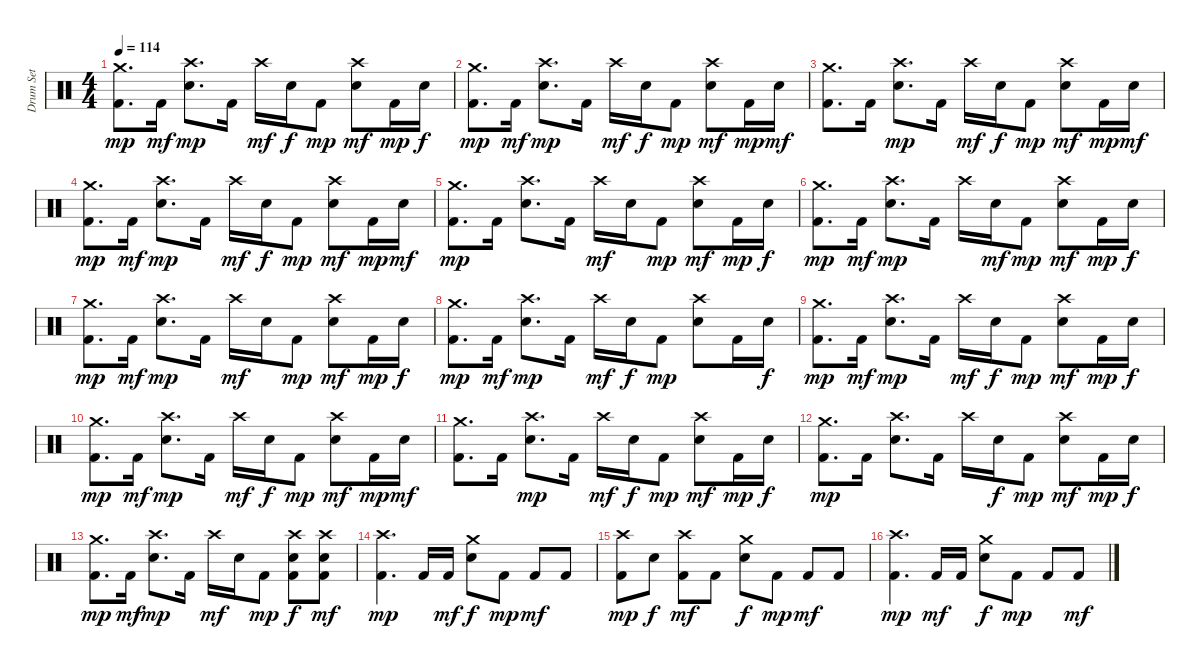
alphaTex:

\track ("Drum Set" "Drum Set") {instrument percussion}
\staff {score}
\articulation defaults
\ts (4 4)
\tempo 114
\clef neutral
\ks c
("Kick (hit) 2" "Crash medium (hit)").8{d dy mp} "Kick (hit) 2".16{dy mf} ("Snare (hit) 2" "Crash high (hit)").8{d dy mp} "Kick (hit) 2".16 "Crash high (hit)".16{dy mf} "Snare (hit) 2".16{dy f} "Kick (hit) 2".8{dy mp} ("Snare (hit) 2" "Crash high (hit)").8{dy mf} "Kick (hit) 2".16{dy mp} "Snare (hit) 2".16{dy f} |
("Kick (hit) 2" "Crash medium (hit)").8{d dy mp} "Kick (hit) 2".16{dy mf} ("Snare (hit) 2" "Crash high (hit)").8{d dy mp} "Kick (hit) 2".16 "Crash high (hit)".16{dy mf} "Snare (hit) 2".16{dy f} "Kick (hit) 2".8{dy mp} ("Snare (hit) 2" "Crash high (hit)").8{dy mf} "Kick (hit) 2".16{dy mp} "Snare (hit) 2".16{dy mf} |
("Kick (hit) 2" "Crash medium (hit)").8{d} "Kick (hit) 2".16 ("Snare (hit) 2" "Crash high (hit)").8{d dy mp} "Kick (hit) 2".16 "Crash high (hit)".16{dy mf} "Snare (hit) 2".16{dy f} "Kick (hit) 2".8{dy mp} ("Snare (hit) 2" "Crash high (hit)").8{dy mf} "Kick (hit) 2".16{dy mp} "Snare (hit) 2".16{dy mf} |
("Kick (hit) 2" "Crash medium (hit)").8{d dy mp} "Kick (hit) 2".16{dy mf} ("Snare (hit) 2" "Crash high (hit)").8{d dy mp} "Kick (hit) 2".16 "Crash high (hit)".16{dy mf} "Snare (hit) 2".16{dy f} "Kick (hit) 2".8{dy mp} ("Snare (hit) 2" "Crash high (hit)").8{dy mf} "Kick (hit) 2".16{dy mp} "Snare (hit) 2".16{dy mf} |
("Kick (hit) 2" "Crash medium (hit)").8{d dy mp} "Kick (hit) 2".16 ("Snare (hit) 2" "Crash high (hit)").8{d} "Kick (hit) 2".16 "Crash high (hit)".16{dy mf} "Snare (hit) 2".16 "Kick (hit) 2".8{dy mp} ("Snare (hit) 2" "Crash high (hit)").8{dy mf} "Kick (hit) 2".16{dy mp} "Snare (hit) 2".16{dy f} |
("Kick (hit) 2" "Crash medium (hit)").8{d dy mp} "Kick (hit) 2".16{dy mf} ("Snare (hit) 2" "Crash high (hit)").8{d dy mp} "Kick (hit) 2".16 "Crash high (hit)".16 "Snare (hit) 2".16{dy mf} "Kick (hit) 2".8{dy mp} ("Snare (hit) 2" "Crash high (hit)").8{dy mf} "Kick (hit) 2".16{dy mp} "Snare (hit) 2".16{dy f} |
("Kick (hit) 2" "Crash medium (hit)").8{d dy mp} "Kick (hit) 2".16{dy mf} ("Snare (hit) 2" "Crash high (hit)").8{d dy mp} "Kick (hit) 2".16 "Crash high (hit)".16{dy mf} "Snare (hit) 2".16 "Kick (hit) 2".8{dy mp} ("Snare (hit) 2" "Crash high (hit)").8{dy mf} "Kick (hit) 2".16{dy mp} "Snare (hit) 2".16{dy f} |
("Kick (hit) 2" "Crash medium (hit)").8{d dy mp} "Kick (hit) 2".16{dy mf} ("Snare (hit) 2" "Crash high (hit)").8{d dy mp} "Kick (hit) 2".16 "Crash high (hit)".16{dy mf} "Snare (hit) 2".16{dy f} "Kick (hit) 2".8{dy mp} ("Snare (hit) 2" "Crash high (hit)").8 "Kick (hit) 2".16 "Snare (hit) 2".16{dy f} |
("Kick (hit) 2" "Crash medium (hit)").8{d dy mp} "Kick (hit) 2".16{dy mf} ("Snare (hit) 2" "Crash high (hit)").8{d dy mp} "Kick (hit) 2".16 "Crash high (hit)".16{dy mf} "Snare (hit) 2".16{dy f} "Kick (hit) 2".8{dy mp} ("Snare (hit) 2" "Crash high (hit)").8{dy mf} "Kick (hit) 2".16{dy mp} "Snare (hit) 2".16{dy f} |
("Kick (hit) 2" "Crash medium (hit)").8{d dy mp} "Kick (hit) 2".16{dy mf} ("Snare (hit) 2" "Crash high (hit)").8{d dy mp} "Kick (hit) 2".16 "Crash high (hit)".16{dy mf} "Snare (hit) 2".16{dy f} "Kick (hit) 2".8{dy mp} ("Snare (hit) 2" "Crash high (hit)").8{dy mf} "Kick (hit) 2".16{dy mp} "Snare (hit) 2".16{dy mf} |
("Kick (hit) 2" "Crash medium (hit)").8{d} "Kick (hit) 2".16 ("Snare (hit) 2" "Crash high (hit)").8{d dy mp} "Kick (hit) 2".16 "Crash high (hit)".16{dy mf} "Snare (hit) 2".16{dy f} "Kick (hit) 2".8{dy mp} ("Snare (hit) 2" "Crash high (hit)").8{dy mf} "Kick (hit) 2".16{dy mp} "Snare (hit) 2".16{dy f} |
("Kick (hit) 2" "Crash medium (hit)").8{d dy mp} "Kick (hit) 2".16 ("Snare (hit) 2" "Crash high (hit)").8{d} "Kick (hit) 2".16 "Crash high (hit)".16 "Snare (hit) 2".16{dy f} "Kick (hit) 2".8{dy mp} ("Snare (hit) 2" "Crash high (hit)").8{dy mf} "Kick (hit) 2".16{dy mp} "Snare (hit) 2".16{dy f} |
("Kick (hit) 2" "Crash medium (hit)").8{d dy mp} "Kick (hit) 2".16{dy mf} ("Snare (hit) 2" "Crash high (hit)").8{d dy mp} "Kick (hit) 2".16 "Crash high (hit)".16{dy mf} "Snare (hit) 2".16 "Kick (hit) 2".8{dy mp} ("Kick (hit) 2" "Snare (hit) 2" "Crash high (hit)").8{dy f} ("Kick (hit) 2" "Snare (hit) 2" "Crash high (hit)").8{dy mf} |
("Kick (hit) 2" "Crash high (hit)").4{d dy mp} "Kick (hit) 2".16 "Kick (hit) 2".16{dy mf} ("Snare (hit) 2" "Crash medium (hit)").8{dy f} "Kick (hit) 2".8{dy mp} "Kick (hit) 2".8{dy mf} "Kick (hit) 2".8 |
("Kick (hit) 2" "Crash high (hit)").8{dy mp} "Snare (hit) 2".8{dy f} ("Kick (hit) 2" "Crash high (hit)").8{dy mf} "Kick (hit) 2".8 ("Snare (hit) 2" "Crash medium (hit)").8{dy f} "Kick (hit) 2".8{dy mp} "Kick (hit) 2".8{dy mf} "Kick (hit) 2".8 |
("Kick (hit) 2" "Crash high (hit)").4{d dy mp} "Kick (hit) 2".16{dy mf} "Kick (hit) 2".16 ("Snare (hit) 2" "Crash medium (hit)").8{dy f} "Kick (hit) 2".8{dy mp} "Kick (hit) 2".8 "Kick (hit) 2".8{dy mf}
